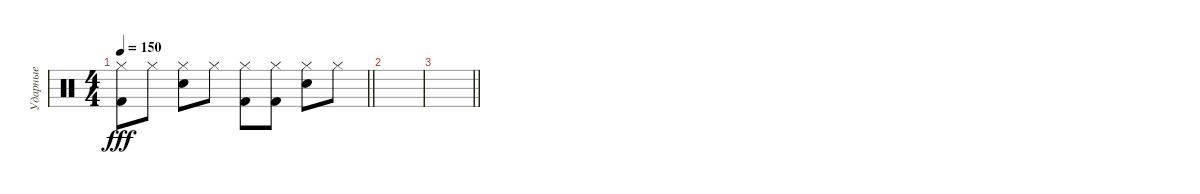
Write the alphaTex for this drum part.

\track ("Ударные" "Ударные") {instrument percussion}
\staff {score}
\articulation defaults
\ts (4 4)
\tempo 150
\clef neutral
\barLineRight lightlight
\ks c
("Kick (hit) 2" "Hi-Hat (closed)").8{dy fff} "Hi-Hat (closed)".8 ("Hi-Hat (closed)" "Electric Snare (hit)").8 "Hi-Hat (closed)".8 ("Kick (hit) 2" "Hi-Hat (closed)").8 ("Kick (hit) 2" "Hi-Hat (closed)").8 ("Hi-Hat (closed)" "Electric Snare (hit)").8 "Hi-Hat (closed)".8 |
|
\barLineRight lightlight
